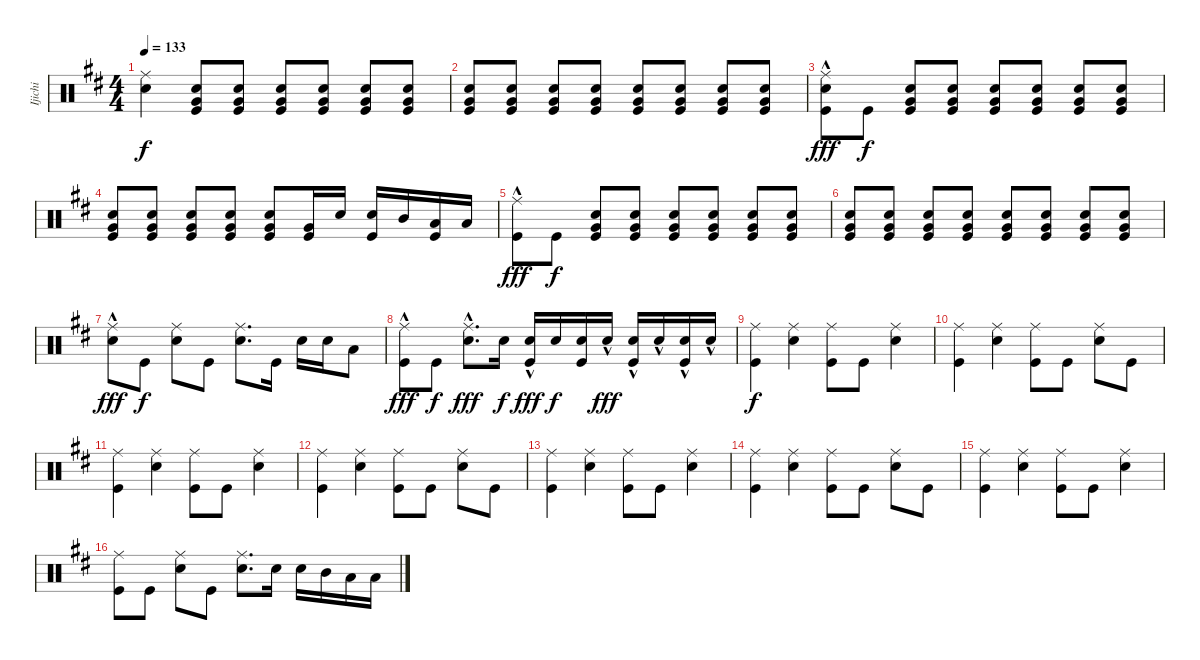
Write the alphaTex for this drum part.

\track ("Ijichi" "Ijichi") {instrument percussion}
\staff {score}
\articulation defaults
\ts (4 4)
\tempo 133
\clef neutral
\ks d
("Ride (middle)" "Snare (hit) 2").4{dy f} ("Snare (hit) 2" "Very Low Tom (hit)" "Kick (hit)").8 ("Snare (hit) 2" "Very Low Tom (hit)" "Kick (hit)").8 ("Snare (hit) 2" "Very Low Tom (hit)" "Kick (hit)").8 ("Snare (hit) 2" "Very Low Tom (hit)" "Kick (hit)").8 ("Snare (hit) 2" "Very Low Tom (hit)" "Kick (hit)").8 ("Snare (hit) 2" "Very Low Tom (hit)" "Kick (hit)").8 |
("Snare (hit) 2" "Very Low Tom (hit)" "Kick (hit)").8 ("Snare (hit) 2" "Very Low Tom (hit)" "Kick (hit)").8 ("Snare (hit) 2" "Very Low Tom (hit)" "Kick (hit)").8 ("Snare (hit) 2" "Very Low Tom (hit)" "Kick (hit)").8 ("Snare (hit) 2" "Very Low Tom (hit)" "Kick (hit)").8 ("Snare (hit) 2" "Very Low Tom (hit)" "Kick (hit)").8 ("Snare (hit) 2" "Very Low Tom (hit)" "Kick (hit)").8 ("Snare (hit) 2" "Very Low Tom (hit)" "Kick (hit)").8 |
("Ride (middle)"{hac} "Snare (hit) 2" "Kick (hit)").8{dy fff} "Kick (hit)".8{dy f} ("Snare (hit) 2" "Very Low Tom (hit)" "Kick (hit)").8 ("Snare (hit) 2" "Very Low Tom (hit)" "Kick (hit)").8 ("Snare (hit) 2" "Very Low Tom (hit)" "Kick (hit)").8 ("Snare (hit) 2" "Very Low Tom (hit)" "Kick (hit)").8 ("Snare (hit) 2" "Very Low Tom (hit)" "Kick (hit)").8 ("Snare (hit) 2" "Very Low Tom (hit)" "Kick (hit)").8 |
("Snare (hit) 2" "Very Low Tom (hit)" "Kick (hit)").8 ("Snare (hit) 2" "Very Low Tom (hit)" "Kick (hit)").8 ("Snare (hit) 2" "Very Low Tom (hit)" "Kick (hit)").8 ("Snare (hit) 2" "Very Low Tom (hit)" "Kick (hit)").8 ("Snare (hit) 2" "Very Low Tom (hit)" "Kick (hit)").8 ("Very Low Tom (hit)" "Kick (hit)").16 "Snare (hit) 2".16 ("Snare (hit) 2" "Kick (hit)").16 "Mid Tom (hit)".16 ("Low Tom (hit)" "Kick (hit)").16 "Low Tom (hit)".16 |
("Ride (middle)"{hac} "Kick (hit)").8{dy fff} "Kick (hit)".8{dy f} ("Snare (hit) 2" "Very Low Tom (hit)" "Kick (hit)").8 ("Snare (hit) 2" "Very Low Tom (hit)" "Kick (hit)").8 ("Snare (hit) 2" "Very Low Tom (hit)" "Kick (hit)").8 ("Snare (hit) 2" "Very Low Tom (hit)" "Kick (hit)").8 ("Snare (hit) 2" "Very Low Tom (hit)" "Kick (hit)").8 ("Snare (hit) 2" "Very Low Tom (hit)" "Kick (hit)").8 |
("Snare (hit) 2" "Very Low Tom (hit)" "Kick (hit)").8 ("Snare (hit) 2" "Very Low Tom (hit)" "Kick (hit)").8 ("Snare (hit) 2" "Very Low Tom (hit)" "Kick (hit)").8 ("Snare (hit) 2" "Very Low Tom (hit)" "Kick (hit)").8 ("Snare (hit) 2" "Very Low Tom (hit)" "Kick (hit)").8 ("Snare (hit) 2" "Very Low Tom (hit)" "Kick (hit)").8 ("Snare (hit) 2" "Very Low Tom (hit)" "Kick (hit)").8 ("Snare (hit) 2" "Very Low Tom (hit)" "Kick (hit)").8 |
("Ride (middle)"{hac} "Snare (hit) 2").8{dy fff} "Kick (hit)".8{dy f} ("Ride (middle)" "Snare (hit) 2").8 "Kick (hit)".8 ("Ride (middle)" "Snare (hit) 2").8{d} "Kick (hit)".16 "Snare (hit) 2".16 "Snare (hit) 2".16 "Low Tom (hit)".8 |
("Ride (middle)"{hac} "Kick (hit)").8{dy fff} "Kick (hit)".8{dy f} ("Ride (middle)"{hac} "Snare (hit) 2").8{d dy fff} "Snare (hit) 2".16{dy f} ("Snare (hit) 2"{hac} "Kick (hit)").16{dy fff} "Snare (hit) 2".16{dy f} ("Snare (hit) 2" "Kick (hit)").16 "Snare (hit) 2"{hac}.16{dy fff} ("Snare (hit) 2"{hac} "Kick (hit)").16 "Snare (hit) 2"{hac}.16 ("Snare (hit) 2"{hac} "Kick (hit)").16 "Snare (hit) 2"{hac}.16 |
("Ride (middle)" "Kick (hit)").4{dy f} ("Ride (middle)" "Snare (hit) 2").4 ("Ride (middle)" "Kick (hit)").8 "Kick (hit)".8 ("Ride (middle)" "Snare (hit) 2").4 |
("Ride (middle)" "Kick (hit)").4 ("Ride (middle)" "Snare (hit) 2").4 ("Ride (middle)" "Kick (hit)").8 "Kick (hit)".8 ("Ride (middle)" "Snare (hit) 2").8 "Kick (hit)".8 |
("Ride (middle)" "Kick (hit)").4 ("Ride (middle)" "Snare (hit) 2").4 ("Ride (middle)" "Kick (hit)").8 "Kick (hit)".8 ("Ride (middle)" "Snare (hit) 2").4 |
("Ride (middle)" "Kick (hit)").4 ("Ride (middle)" "Snare (hit) 2").4 ("Ride (middle)" "Kick (hit)").8 "Kick (hit)".8 ("Ride (middle)" "Snare (hit) 2").8 "Kick (hit)".8 |
("Ride (middle)" "Kick (hit)").4 ("Ride (middle)" "Snare (hit) 2").4 ("Ride (middle)" "Kick (hit)").8 "Kick (hit)".8 ("Ride (middle)" "Snare (hit) 2").4 |
("Ride (middle)" "Kick (hit)").4 ("Ride (middle)" "Snare (hit) 2").4 ("Ride (middle)" "Kick (hit)").8 "Kick (hit)".8 ("Ride (middle)" "Snare (hit) 2").8 "Kick (hit)".8 |
("Ride (middle)" "Kick (hit)").4 ("Ride (middle)" "Snare (hit) 2").4 ("Ride (middle)" "Kick (hit)").8 "Kick (hit)".8 ("Ride (middle)" "Snare (hit) 2").4 |
("Ride (middle)" "Kick (hit)").8 "Kick (hit)".8 ("Ride (middle)" "Snare (hit) 2").8 "Kick (hit)".8 ("Ride (middle)" "Snare (hit) 2").8{d} "Snare (hit) 2".16 "Snare (hit) 2".16 "Mid Tom (hit)".16 "Low Tom (hit)".16 "Low Tom (hit)".16
